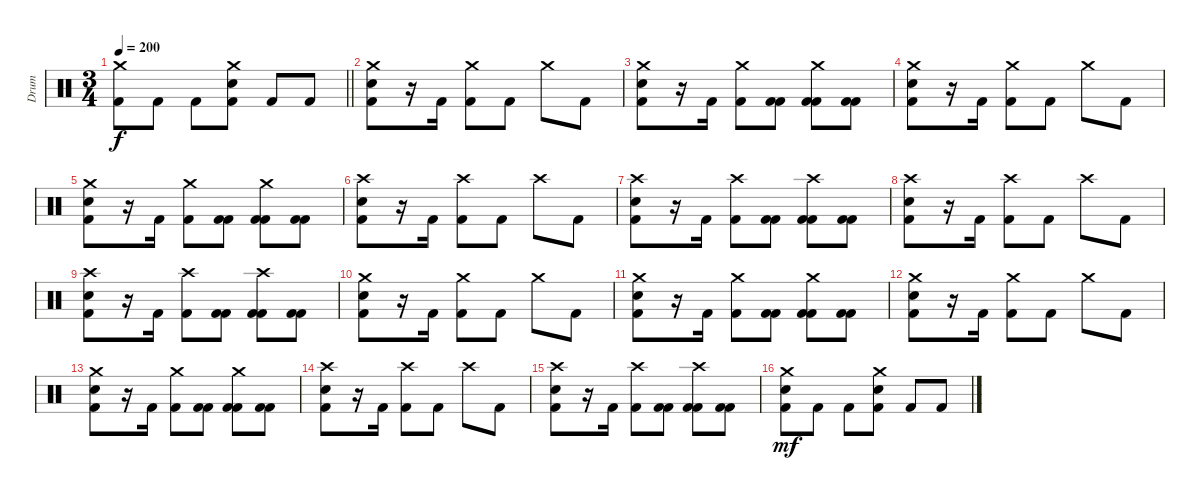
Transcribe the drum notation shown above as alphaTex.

\track ("Drum" "Drum") {instrument percussion}
\staff {score}
\articulation defaults
\ts (3 4)
\tempo 200
\clef neutral
\barLineRight lightlight
\ks c
("Crash medium (hit)" "Kick (hit) 2").8{dy f} "Kick (hit) 2".8 "Kick (hit) 2".8 ("Crash medium (hit)" "Electric Snare (hit)" "Kick (hit) 2").8 "Kick (hit) 2".8 "Kick (hit) 2".8 |
("Crash medium (hit)" "Electric Snare (hit)" "Kick (hit) 2").8 r.16 "Kick (hit) 2".16 ("Crash medium (hit)" "Kick (hit) 2").8 "Kick (hit) 2".8 "Crash medium (hit)".8 "Kick (hit) 2".8 |
("Crash medium (hit)" "Electric Snare (hit)" "Kick (hit) 2").8 r.16 "Kick (hit) 2".16 ("Crash medium (hit)" "Kick (hit) 2").8 ("Kick (hit) 2" "Kick (hit) 2").8 ("Crash medium (hit)" "Kick (hit) 2" "Kick (hit) 2").8 ("Kick (hit) 2" "Kick (hit) 2").8 |
("Crash medium (hit)" "Electric Snare (hit)" "Kick (hit) 2").8 r.16 "Kick (hit) 2".16 ("Crash medium (hit)" "Kick (hit) 2").8 "Kick (hit) 2".8 "Crash medium (hit)".8 "Kick (hit) 2".8 |
("Crash medium (hit)" "Electric Snare (hit)" "Kick (hit) 2").8 r.16 "Kick (hit) 2".16 ("Crash medium (hit)" "Kick (hit) 2").8 ("Kick (hit) 2" "Kick (hit) 2").8 ("Crash medium (hit)" "Kick (hit) 2" "Kick (hit) 2").8 ("Kick (hit) 2" "Kick (hit) 2").8 |
("Crash high (hit)" "Electric Snare (hit)" "Kick (hit) 2").8 r.16 "Kick (hit) 2".16 ("Crash high (hit)" "Kick (hit) 2").8 "Kick (hit) 2".8 "Crash high (hit)".8 "Kick (hit) 2".8 |
("Crash high (hit)" "Electric Snare (hit)" "Kick (hit) 2").8 r.16 "Kick (hit) 2".16 ("Crash high (hit)" "Kick (hit) 2").8 ("Kick (hit) 2" "Kick (hit) 2").8 ("Crash high (hit)" "Kick (hit) 2" "Kick (hit) 2").8 ("Kick (hit) 2" "Kick (hit) 2").8 |
("Crash high (hit)" "Electric Snare (hit)" "Kick (hit) 2").8 r.16 "Kick (hit) 2".16 ("Crash high (hit)" "Kick (hit) 2").8 "Kick (hit) 2".8 "Crash high (hit)".8 "Kick (hit) 2".8 |
("Crash high (hit)" "Electric Snare (hit)" "Kick (hit) 2").8 r.16 "Kick (hit) 2".16 ("Crash high (hit)" "Kick (hit) 2").8 ("Kick (hit) 2" "Kick (hit) 2").8 ("Crash high (hit)" "Kick (hit) 2" "Kick (hit) 2").8 ("Kick (hit) 2" "Kick (hit) 2").8 |
("Crash medium (hit)" "Electric Snare (hit)" "Kick (hit) 2").8 r.16 "Kick (hit) 2".16 ("Crash medium (hit)" "Kick (hit) 2").8 "Kick (hit) 2".8 "Crash medium (hit)".8 "Kick (hit) 2".8 |
("Crash medium (hit)" "Electric Snare (hit)" "Kick (hit) 2").8 r.16 "Kick (hit) 2".16 ("Crash medium (hit)" "Kick (hit) 2").8 ("Kick (hit) 2" "Kick (hit) 2").8 ("Crash medium (hit)" "Kick (hit) 2" "Kick (hit) 2").8 ("Kick (hit) 2" "Kick (hit) 2").8 |
("Crash medium (hit)" "Electric Snare (hit)" "Kick (hit) 2").8 r.16 "Kick (hit) 2".16 ("Crash medium (hit)" "Kick (hit) 2").8 "Kick (hit) 2".8 "Crash medium (hit)".8 "Kick (hit) 2".8 |
("Crash medium (hit)" "Electric Snare (hit)" "Kick (hit) 2").8 r.16 "Kick (hit) 2".16 ("Crash medium (hit)" "Kick (hit) 2").8 ("Kick (hit) 2" "Kick (hit) 2").8 ("Crash medium (hit)" "Kick (hit) 2" "Kick (hit) 2").8 ("Kick (hit) 2" "Kick (hit) 2").8 |
("Crash high (hit)" "Electric Snare (hit)" "Kick (hit) 2").8 r.16 "Kick (hit) 2".16 ("Crash high (hit)" "Kick (hit) 2").8 "Kick (hit) 2".8 "Crash high (hit)".8 "Kick (hit) 2".8 |
("Crash high (hit)" "Electric Snare (hit)" "Kick (hit) 2").8 r.16 "Kick (hit) 2".16 ("Crash high (hit)" "Kick (hit) 2").8 ("Kick (hit) 2" "Kick (hit) 2").8 ("Crash high (hit)" "Kick (hit) 2" "Kick (hit) 2").8 ("Kick (hit) 2" "Kick (hit) 2").8 |
("Crash medium (hit)" "Electric Snare (hit)" "Kick (hit) 2").8{dy mf} "Kick (hit) 2".8 "Kick (hit) 2".8 ("Crash medium (hit)" "Electric Snare (hit)" "Kick (hit) 2").8 "Kick (hit) 2".8 "Kick (hit) 2".8
